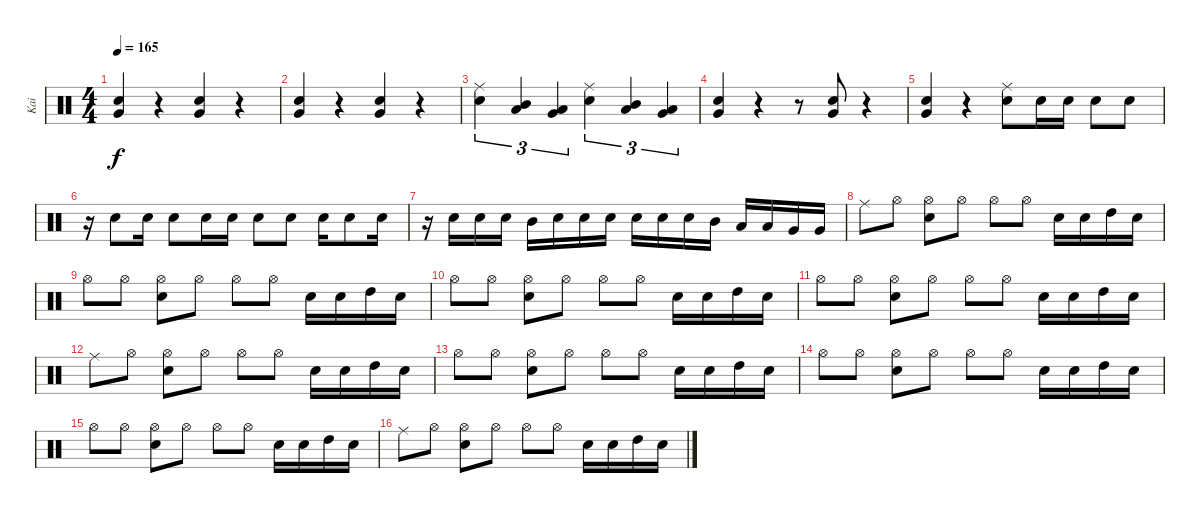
\track ("Kai" "Kai") {instrument percussion}
\staff {score}
\articulation defaults
\ts (4 4)
\tempo 165
\clef neutral
\ks c
("Very Low Tom (hit)" "Snare (hit) 2").4{dy f} r.4 ("Very Low Tom (hit)" "Snare (hit) 2").4 r.4 |
("Very Low Tom (hit)" "Snare (hit) 2").4 r.4 ("Very Low Tom (hit)" "Snare (hit) 2").4 r.4 |
("Ride (middle)" "Snare (hit) 2").4{tu (3 2)} ("Low Tom (hit)" "Mid Tom (hit)").4{tu (3 2)} ("Low Tom (hit)" "Very Low Tom (hit)").4{tu (3 2)} ("Ride (middle)" "Snare (hit) 2").4{tu (3 2)} ("Low Tom (hit)" "Mid Tom (hit)").4{tu (3 2)} ("Low Tom (hit)" "Very Low Tom (hit)").4{tu (3 2)} |
("Very Low Tom (hit)" "Snare (hit) 2").4 r.4 r.8 ("Very Low Tom (hit)" "Snare (hit) 2").8 r.4 |
("Very Low Tom (hit)" "Snare (hit) 2").4 r.4 ("Ride (middle)" "Snare (hit) 2").8 "Snare (hit) 2".16 "Snare (hit) 2".16 "Snare (hit) 2".8 "Snare (hit) 2".8 |
r.16 "Snare (hit) 2".8 "Snare (hit) 2".16 "Snare (hit) 2".8 "Snare (hit) 2".16 "Snare (hit) 2".16 "Snare (hit) 2".8 "Snare (hit) 2".8 "Snare (hit) 2".16 "Snare (hit) 2".8 "Snare (hit) 2".16 |
r.16 "Snare (hit) 2".16 "Snare (hit) 2".16 "Snare (hit) 2".16 "Mid Tom (hit)".16 "Snare (hit) 2".16 "Snare (hit) 2".16 "Snare (hit) 2".16 "Snare (hit) 2".16 "Snare (hit) 2".16 "Snare (hit) 2".16 "Mid Tom (hit)".16 "Low Tom (hit)".16 "Low Tom (hit)".16 "Very Low Tom (hit)".16 "Very Low Tom (hit)".16 |
"Ride (middle)".8 "Hi-Hat (open)".8 ("Hi-Hat (open)" "Snare (hit) 2").8 "Hi-Hat (open)".8 "Hi-Hat (open)".8 "Hi-Hat (open)".8 "Snare (hit) 2".16 "Snare (hit) 2".16 "High Tom (hit)".16 "Snare (hit) 2".16 |
"Hi-Hat (open)".8 "Hi-Hat (open)".8 ("Hi-Hat (open)" "Snare (hit) 2").8 "Hi-Hat (open)".8 "Hi-Hat (open)".8 "Hi-Hat (open)".8 "Snare (hit) 2".16 "Snare (hit) 2".16 "High Tom (hit)".16 "Snare (hit) 2".16 |
"Hi-Hat (open)".8 "Hi-Hat (open)".8 ("Hi-Hat (open)" "Snare (hit) 2").8 "Hi-Hat (open)".8 "Hi-Hat (open)".8 "Hi-Hat (open)".8 "Snare (hit) 2".16 "Snare (hit) 2".16 "High Tom (hit)".16 "Snare (hit) 2".16 |
"Hi-Hat (open)".8 "Hi-Hat (open)".8 ("Hi-Hat (open)" "Snare (hit) 2").8 "Hi-Hat (open)".8 "Hi-Hat (open)".8 "Hi-Hat (open)".8 "Snare (hit) 2".16 "Snare (hit) 2".16 "High Tom (hit)".16 "Snare (hit) 2".16 |
"Ride (middle)".8 "Hi-Hat (open)".8 ("Hi-Hat (open)" "Snare (hit) 2").8 "Hi-Hat (open)".8 "Hi-Hat (open)".8 "Hi-Hat (open)".8 "Snare (hit) 2".16 "Snare (hit) 2".16 "High Tom (hit)".16 "Snare (hit) 2".16 |
"Hi-Hat (open)".8 "Hi-Hat (open)".8 ("Hi-Hat (open)" "Snare (hit) 2").8 "Hi-Hat (open)".8 "Hi-Hat (open)".8 "Hi-Hat (open)".8 "Snare (hit) 2".16 "Snare (hit) 2".16 "High Tom (hit)".16 "Snare (hit) 2".16 |
"Hi-Hat (open)".8 "Hi-Hat (open)".8 ("Hi-Hat (open)" "Snare (hit) 2").8 "Hi-Hat (open)".8 "Hi-Hat (open)".8 "Hi-Hat (open)".8 "Snare (hit) 2".16 "Snare (hit) 2".16 "High Tom (hit)".16 "Snare (hit) 2".16 |
"Hi-Hat (open)".8 "Hi-Hat (open)".8 ("Hi-Hat (open)" "Snare (hit) 2").8 "Hi-Hat (open)".8 "Hi-Hat (open)".8 "Hi-Hat (open)".8 "Snare (hit) 2".16 "Snare (hit) 2".16 "High Tom (hit)".16 "Snare (hit) 2".16 |
"Ride (middle)".8 "Hi-Hat (open)".8 ("Hi-Hat (open)" "Snare (hit) 2").8 "Hi-Hat (open)".8 "Hi-Hat (open)".8 "Hi-Hat (open)".8 "Snare (hit) 2".16 "Snare (hit) 2".16 "High Tom (hit)".16 "Snare (hit) 2".16
